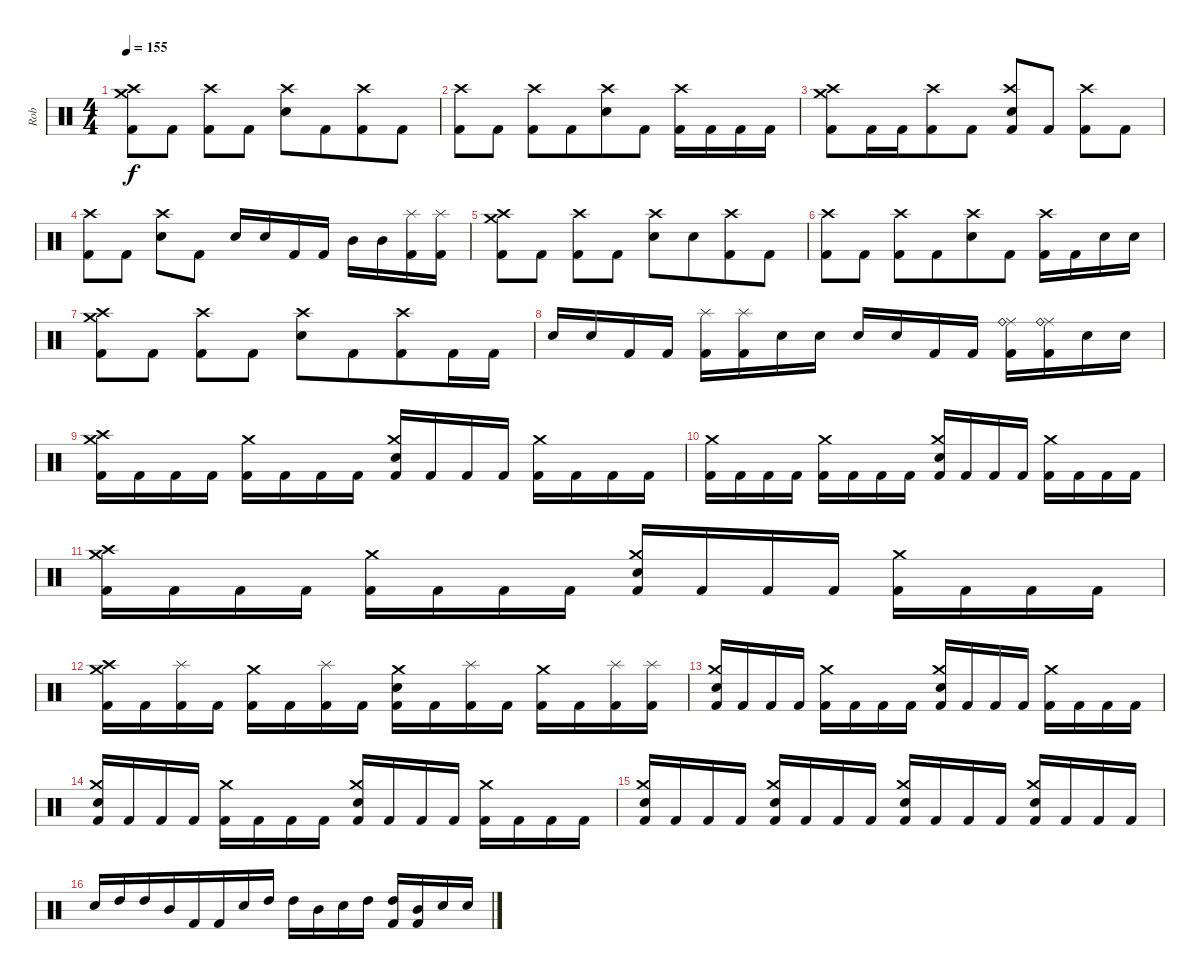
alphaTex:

\track ("Rob" "Rob") {instrument percussion}
\staff {score}
\articulation defaults
\ts (4 4)
\tempo 155
\clef neutral
\ks c
("Kick (hit) 2" "Crash high (hit)" "Crash medium (hit)").8{dy f} "Kick (hit) 2".8 ("Kick (hit) 2" "Crash high (hit)").8 "Kick (hit) 2".8 ("Electric Snare (hit)" "Crash high (hit)").8 "Kick (hit) 2".8{beam merge} ("Kick (hit) 2" "Crash high (hit)").8 "Kick (hit) 2".8 |
("Kick (hit) 2" "Crash high (hit)").8 "Kick (hit) 2".8 ("Kick (hit) 2" "Crash high (hit)").8 "Kick (hit) 2".8{beam merge} ("Electric Snare (hit)" "Crash high (hit)").8{beam merge} "Kick (hit) 2".8 ("Kick (hit) 2" "Crash high (hit)").16 "Kick (hit) 2".16{beam merge} "Kick (hit) 2".16 "Kick (hit) 2".16 |
("Kick (hit) 2" "Crash medium (hit)" "Crash high (hit)").8 "Kick (hit) 2".16 "Kick (hit) 2".16{beam merge} ("Kick (hit) 2" "Crash high (hit)").8 "Kick (hit) 2".8 ("Kick (hit) 2" "Electric Snare (hit)" "Crash high (hit)").8 "Kick (hit) 2".8 ("Kick (hit) 2" "Crash high (hit)").8{beam merge} "Kick (hit) 2".8 |
("Kick (hit) 2" "Crash high (hit)").8 "Kick (hit) 2".8 ("Electric Snare (hit)" "Crash high (hit)").8 "Kick (hit) 2".8 "Electric Snare (hit)".16 "Electric Snare (hit)".16 "Kick (hit) 2".16 "Kick (hit) 2".16 "Mid Tom (hit)".16 "Mid Tom (hit)".16 ("Kick (hit) 2" "Splash (hit)").16 ("Kick (hit) 2" "Splash (hit)").16 |
("Kick (hit) 2" "Crash high (hit)" "Crash medium (hit)").8 "Kick (hit) 2".8 ("Kick (hit) 2" "Crash high (hit)").8 "Kick (hit) 2".8 ("Electric Snare (hit)" "Crash high (hit)").8 "Electric Snare (hit)".8{beam merge} ("Kick (hit) 2" "Crash high (hit)").8 "Kick (hit) 2".8 |
("Kick (hit) 2" "Crash high (hit)").8 "Kick (hit) 2".8 ("Kick (hit) 2" "Crash high (hit)").8 "Kick (hit) 2".8{beam merge} ("Electric Snare (hit)" "Crash high (hit)").8{beam merge} "Kick (hit) 2".8 ("Kick (hit) 2" "Crash high (hit)").16 "Kick (hit) 2".16{beam merge} "Electric Snare (hit)".16 "Electric Snare (hit)".16 |
("Kick (hit) 2" "Crash high (hit)" "Crash medium (hit)").8 "Kick (hit) 2".8 ("Kick (hit) 2" "Crash high (hit)").8 "Kick (hit) 2".8 ("Electric Snare (hit)" "Crash high (hit)").8 "Kick (hit) 2".8{beam merge} ("Kick (hit) 2" "Crash high (hit)").8 "Kick (hit) 2".16 "Kick (hit) 2".16 |
"Electric Snare (hit)".16 "Electric Snare (hit)".16 "Kick (hit) 2".16 "Kick (hit) 2".16 ("Kick (hit) 2" "Splash (hit)").16 ("Kick (hit) 2" "Splash (hit)").16 "Electric Snare (hit)".16 "Electric Snare (hit)".16 "Electric Snare (hit)".16 "Electric Snare (hit)".16 "Kick (hit) 2".16 "Kick (hit) 2".16 ("Kick (hit) 2" "Ride (middle)" "Ride (bell)").16{beam merge} ("Kick (hit) 2" "Ride (middle)" "Ride (bell)").16 "Electric Snare (hit)".16 "Electric Snare (hit)".16 |
("Kick (hit) 2" "Crash high (hit)" "Crash medium (hit)").16 "Kick (hit) 2".16 "Kick (hit) 2".16 "Kick (hit) 2".16 ("Kick (hit) 2" "Crash medium (hit)").16{beam merge} "Kick (hit) 2".16{beam merge} "Kick (hit) 2".16 "Kick (hit) 2".16 ("Kick (hit) 2" "Crash medium (hit)" "Electric Snare (hit)").16 "Kick (hit) 2".16{beam merge} "Kick (hit) 2".16 "Kick (hit) 2".16 ("Kick (hit) 2" "Crash medium (hit)").16{beam merge} "Kick (hit) 2".16 "Kick (hit) 2".16 "Kick (hit) 2".16 |
("Kick (hit) 2" "Crash medium (hit)").16 "Kick (hit) 2".16 "Kick (hit) 2".16 "Kick (hit) 2".16 ("Kick (hit) 2" "Crash medium (hit)").16{beam merge} "Kick (hit) 2".16{beam merge} "Kick (hit) 2".16 "Kick (hit) 2".16 ("Kick (hit) 2" "Crash medium (hit)" "Electric Snare (hit)").16 "Kick (hit) 2".16{beam merge} "Kick (hit) 2".16 "Kick (hit) 2".16 ("Kick (hit) 2" "Crash medium (hit)").16{beam merge} "Kick (hit) 2".16 "Kick (hit) 2".16 "Kick (hit) 2".16 |
("Kick (hit) 2" "Crash high (hit)" "Crash medium (hit)").16 "Kick (hit) 2".16 "Kick (hit) 2".16 "Kick (hit) 2".16 ("Kick (hit) 2" "Crash medium (hit)").16{beam merge} "Kick (hit) 2".16{beam merge} "Kick (hit) 2".16 "Kick (hit) 2".16 ("Kick (hit) 2" "Crash medium (hit)" "Electric Snare (hit)").16 "Kick (hit) 2".16{beam merge} "Kick (hit) 2".16 "Kick (hit) 2".16 ("Kick (hit) 2" "Crash medium (hit)").16{beam merge} "Kick (hit) 2".16 "Kick (hit) 2".16 "Kick (hit) 2".16 |
("Kick (hit) 2" "Crash high (hit)" "Crash medium (hit)").16 "Kick (hit) 2".16 ("Kick (hit) 2" "Splash (hit)").16 "Kick (hit) 2".16 ("Kick (hit) 2" "Crash medium (hit)").16{beam merge} "Kick (hit) 2".16{beam merge} ("Kick (hit) 2" "Splash (hit)").16 "Kick (hit) 2".16 ("Kick (hit) 2" "Crash medium (hit)" "Electric Snare (hit)").16 "Kick (hit) 2".16{beam merge} ("Kick (hit) 2" "Splash (hit)").16 "Kick (hit) 2".16 ("Kick (hit) 2" "Crash medium (hit)").16{beam merge} "Kick (hit) 2".16 ("Kick (hit) 2" "Splash (hit)").16 ("Kick (hit) 2" "Splash (hit)").16 |
("Kick (hit) 2" "Electric Snare (hit)" "Crash medium (hit)").16 "Kick (hit) 2".16 "Kick (hit) 2".16 "Kick (hit) 2".16 ("Kick (hit) 2" "Crash medium (hit)").16{beam merge} "Kick (hit) 2".16{beam merge} "Kick (hit) 2".16 "Kick (hit) 2".16 ("Kick (hit) 2" "Crash medium (hit)" "Electric Snare (hit)").16 "Kick (hit) 2".16{beam merge} "Kick (hit) 2".16 "Kick (hit) 2".16 ("Kick (hit) 2" "Crash medium (hit)").16{beam merge} "Kick (hit) 2".16 "Kick (hit) 2".16 "Kick (hit) 2".16 |
("Kick (hit) 2" "Electric Snare (hit)" "Crash medium (hit)").16 "Kick (hit) 2".16 "Kick (hit) 2".16 "Kick (hit) 2".16 ("Kick (hit) 2" "Crash medium (hit)").16{beam merge} "Kick (hit) 2".16{beam merge} "Kick (hit) 2".16 "Kick (hit) 2".16 ("Kick (hit) 2" "Crash medium (hit)" "Electric Snare (hit)").16 "Kick (hit) 2".16{beam merge} "Kick (hit) 2".16 "Kick (hit) 2".16 ("Kick (hit) 2" "Crash medium (hit)").16{beam merge} "Kick (hit) 2".16 "Kick (hit) 2".16 "Kick (hit) 2".16 |
("Kick (hit) 2" "Electric Snare (hit)" "Crash medium (hit)").16 "Kick (hit) 2".16 "Kick (hit) 2".16 "Kick (hit) 2".16 ("Kick (hit) 2" "Electric Snare (hit)" "Crash medium (hit)").16{beam merge} "Kick (hit) 2".16{beam merge} "Kick (hit) 2".16 "Kick (hit) 2".16 ("Kick (hit) 2" "Crash medium (hit)" "Electric Snare (hit)").16 "Kick (hit) 2".16{beam merge} "Kick (hit) 2".16 "Kick (hit) 2".16 ("Kick (hit) 2" "Electric Snare (hit)" "Crash medium (hit)").16{beam merge} "Kick (hit) 2".16 "Kick (hit) 2".16 "Kick (hit) 2".16 |
"Electric Snare (hit)".16 "High Tom (hit)".16 "High Tom (hit)".16 "Mid Tom (hit)".16{beam merge} "Kick (hit) 2".16 "Kick (hit) 2".16 "Electric Snare (hit)".16 "High Tom (hit)".16 "High Tom (hit)".16 "Mid Tom (hit)".16 "Electric Snare (hit)".16 "High Tom (hit)".16 ("High Tom (hit)" "Kick (hit) 2").16 ("Mid Tom (hit)" "Kick (hit) 2").16 "Electric Snare (hit)".16 "Electric Snare (hit)".16
